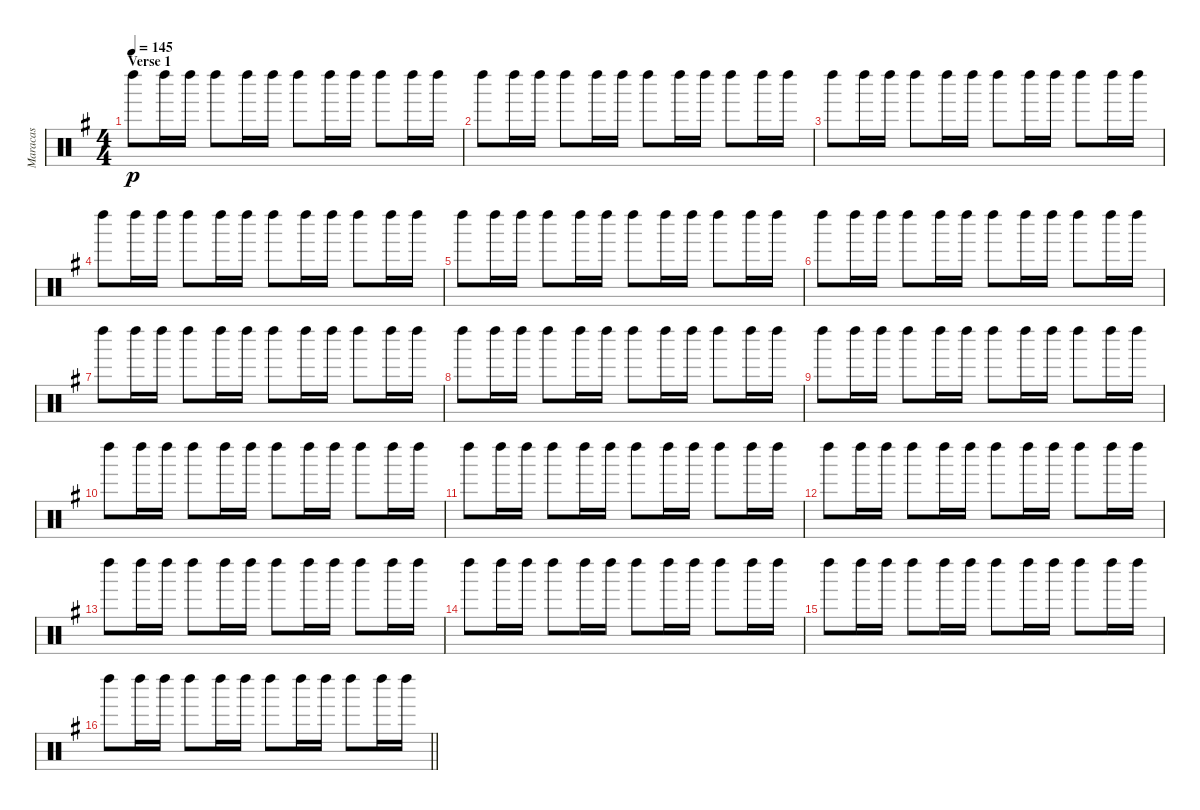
\track ("Maracas" "Maracas") {instrument percussion}
\staff {score}
\articulation defaults
\ts (4 4)
\section ("" "Verse 1")
\tempo 145
\clef neutral
\ks g "Left Maraca (hit)".8{dy p} "Left Maraca (hit)".16 "Left Maraca (hit)".16 "Left Maraca (hit)".8 "Left Maraca (hit)".16 "Left Maraca (hit)".16 "Left Maraca (hit)".8 "Left Maraca (hit)".16 "Left Maraca (hit)".16 "Left Maraca (hit)".8 "Left Maraca (hit)".16 "Left Maraca (hit)".16
|
"Left Maraca (hit)".8 "Left Maraca (hit)".16 "Left Maraca (hit)".16 "Left Maraca (hit)".8 "Left Maraca (hit)".16 "Left Maraca (hit)".16 "Left Maraca (hit)".8 "Left Maraca (hit)".16 "Left Maraca (hit)".16 "Left Maraca (hit)".8 "Left Maraca (hit)".16 "Left Maraca (hit)".16 |
"Left Maraca (hit)".8 "Left Maraca (hit)".16 "Left Maraca (hit)".16 "Left Maraca (hit)".8 "Left Maraca (hit)".16 "Left Maraca (hit)".16 "Left Maraca (hit)".8 "Left Maraca (hit)".16 "Left Maraca (hit)".16 "Left Maraca (hit)".8 "Left Maraca (hit)".16 "Left Maraca (hit)".16 |
"Left Maraca (hit)".8 "Left Maraca (hit)".16 "Left Maraca (hit)".16 "Left Maraca (hit)".8 "Left Maraca (hit)".16 "Left Maraca (hit)".16 "Left Maraca (hit)".8 "Left Maraca (hit)".16 "Left Maraca (hit)".16 "Left Maraca (hit)".8 "Left Maraca (hit)".16 "Left Maraca (hit)".16 |
"Left Maraca (hit)".8 "Left Maraca (hit)".16 "Left Maraca (hit)".16 "Left Maraca (hit)".8 "Left Maraca (hit)".16 "Left Maraca (hit)".16 "Left Maraca (hit)".8 "Left Maraca (hit)".16 "Left Maraca (hit)".16 "Left Maraca (hit)".8 "Left Maraca (hit)".16 "Left Maraca (hit)".16 |
"Left Maraca (hit)".8 "Left Maraca (hit)".16 "Left Maraca (hit)".16 "Left Maraca (hit)".8 "Left Maraca (hit)".16 "Left Maraca (hit)".16 "Left Maraca (hit)".8 "Left Maraca (hit)".16 "Left Maraca (hit)".16 "Left Maraca (hit)".8 "Left Maraca (hit)".16 "Left Maraca (hit)".16 |
"Left Maraca (hit)".8 "Left Maraca (hit)".16 "Left Maraca (hit)".16 "Left Maraca (hit)".8 "Left Maraca (hit)".16 "Left Maraca (hit)".16 "Left Maraca (hit)".8 "Left Maraca (hit)".16 "Left Maraca (hit)".16 "Left Maraca (hit)".8 "Left Maraca (hit)".16 "Left Maraca (hit)".16 |
"Left Maraca (hit)".8 "Left Maraca (hit)".16 "Left Maraca (hit)".16 "Left Maraca (hit)".8 "Left Maraca (hit)".16 "Left Maraca (hit)".16 "Left Maraca (hit)".8 "Left Maraca (hit)".16 "Left Maraca (hit)".16 "Left Maraca (hit)".8 "Left Maraca (hit)".16 "Left Maraca (hit)".16 |
"Left Maraca (hit)".8 "Left Maraca (hit)".16 "Left Maraca (hit)".16 "Left Maraca (hit)".8 "Left Maraca (hit)".16 "Left Maraca (hit)".16 "Left Maraca (hit)".8 "Left Maraca (hit)".16 "Left Maraca (hit)".16 "Left Maraca (hit)".8 "Left Maraca (hit)".16 "Left Maraca (hit)".16 |
"Left Maraca (hit)".8 "Left Maraca (hit)".16 "Left Maraca (hit)".16 "Left Maraca (hit)".8 "Left Maraca (hit)".16 "Left Maraca (hit)".16 "Left Maraca (hit)".8 "Left Maraca (hit)".16 "Left Maraca (hit)".16 "Left Maraca (hit)".8 "Left Maraca (hit)".16 "Left Maraca (hit)".16 |
"Left Maraca (hit)".8 "Left Maraca (hit)".16 "Left Maraca (hit)".16 "Left Maraca (hit)".8 "Left Maraca (hit)".16 "Left Maraca (hit)".16 "Left Maraca (hit)".8 "Left Maraca (hit)".16 "Left Maraca (hit)".16 "Left Maraca (hit)".8 "Left Maraca (hit)".16 "Left Maraca (hit)".16 |
"Left Maraca (hit)".8 "Left Maraca (hit)".16 "Left Maraca (hit)".16 "Left Maraca (hit)".8 "Left Maraca (hit)".16 "Left Maraca (hit)".16 "Left Maraca (hit)".8 "Left Maraca (hit)".16 "Left Maraca (hit)".16 "Left Maraca (hit)".8 "Left Maraca (hit)".16 "Left Maraca (hit)".16 |
"Left Maraca (hit)".8 "Left Maraca (hit)".16 "Left Maraca (hit)".16 "Left Maraca (hit)".8 "Left Maraca (hit)".16 "Left Maraca (hit)".16 "Left Maraca (hit)".8 "Left Maraca (hit)".16 "Left Maraca (hit)".16 "Left Maraca (hit)".8 "Left Maraca (hit)".16 "Left Maraca (hit)".16 |
"Left Maraca (hit)".8 "Left Maraca (hit)".16 "Left Maraca (hit)".16 "Left Maraca (hit)".8 "Left Maraca (hit)".16 "Left Maraca (hit)".16 "Left Maraca (hit)".8 "Left Maraca (hit)".16 "Left Maraca (hit)".16 "Left Maraca (hit)".8 "Left Maraca (hit)".16 "Left Maraca (hit)".16 |
"Left Maraca (hit)".8 "Left Maraca (hit)".16 "Left Maraca (hit)".16 "Left Maraca (hit)".8 "Left Maraca (hit)".16 "Left Maraca (hit)".16 "Left Maraca (hit)".8 "Left Maraca (hit)".16 "Left Maraca (hit)".16 "Left Maraca (hit)".8 "Left Maraca (hit)".16 "Left Maraca (hit)".16 |
\barLineRight lightlight "Left Maraca (hit)".8 "Left Maraca (hit)".16 "Left Maraca (hit)".16 "Left Maraca (hit)".8 "Left Maraca (hit)".16 "Left Maraca (hit)".16 "Left Maraca (hit)".8 "Left Maraca (hit)".16 "Left Maraca (hit)".16 "Left Maraca (hit)".8 "Left Maraca (hit)".16 "Left Maraca (hit)".16
